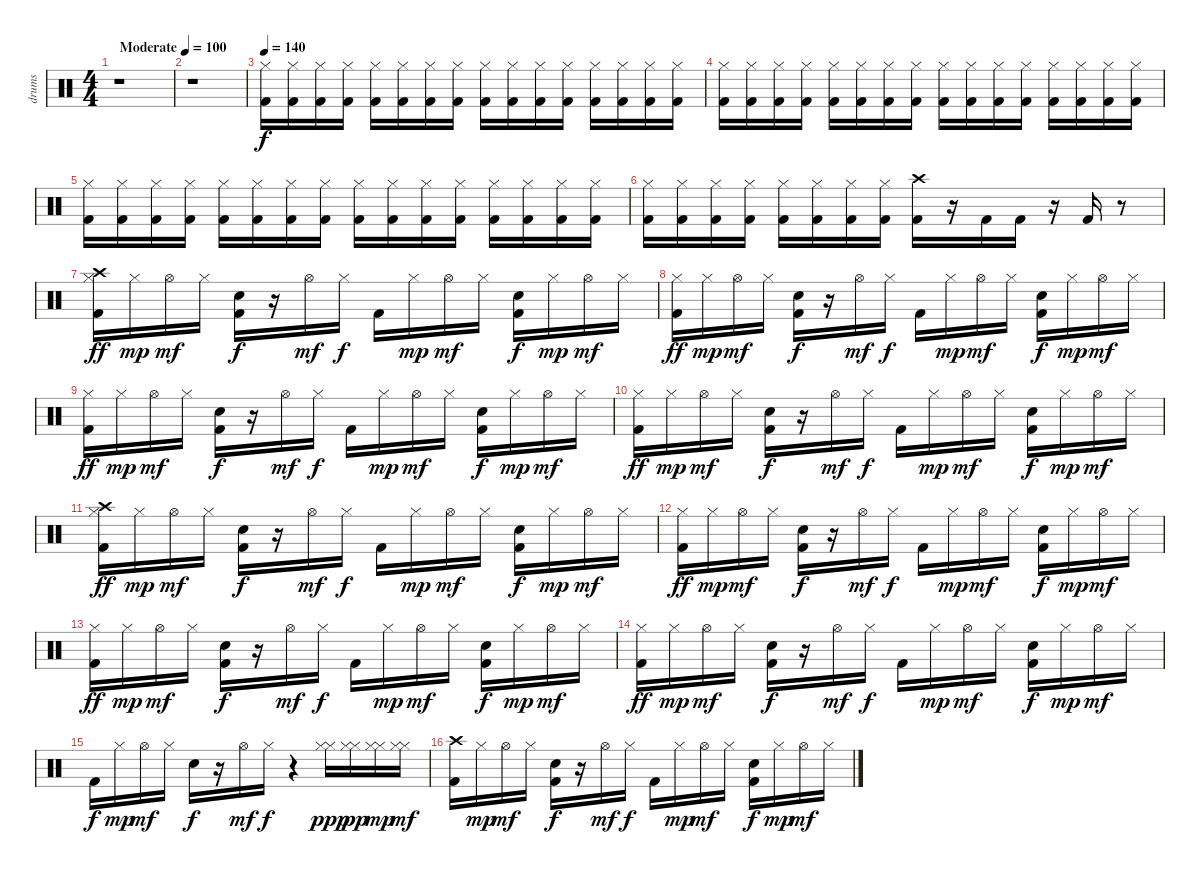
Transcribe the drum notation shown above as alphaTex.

\track ("drums" "drums") {instrument percussion}
\staff {score}
\articulation defaults
\ts (4 4)
\tempo (100 "Moderate")
\clef neutral
\ks c
r.1{dy f} |
r.1 |
\tempo 140
("Kick (hit) 2" "Hi-Hat (closed)").16 ("Kick (hit) 2" "Hi-Hat (closed)").16{volume 1} ("Kick (hit) 2" "Hi-Hat (closed)").16{volume 1} ("Kick (hit) 2" "Hi-Hat (closed)").16{volume 1} ("Kick (hit) 2" "Hi-Hat (closed)").16{volume 1} ("Kick (hit) 2" "Hi-Hat (closed)").16{volume 2} ("Kick (hit) 2" "Hi-Hat (closed)").16{volume 2} ("Kick (hit) 2" "Hi-Hat (closed)").16{volume 2} ("Kick (hit) 2" "Hi-Hat (closed)").16{volume 2} ("Kick (hit) 2" "Hi-Hat (closed)").16{volume 2} ("Kick (hit) 2" "Hi-Hat (closed)").16{volume 2} ("Kick (hit) 2" "Hi-Hat (closed)").16{volume 3} ("Kick (hit) 2" "Hi-Hat (closed)").16{volume 3} ("Kick (hit) 2" "Hi-Hat (closed)").16{volume 3} ("Kick (hit) 2" "Hi-Hat (closed)").16{volume 3} ("Kick (hit) 2" "Hi-Hat (closed)").16{volume 3} |
("Kick (hit) 2" "Hi-Hat (closed)").16{volume 4} ("Kick (hit) 2" "Hi-Hat (closed)").16{volume 4} ("Kick (hit) 2" "Hi-Hat (closed)").16{volume 4} ("Kick (hit) 2" "Hi-Hat (closed)").16{volume 4} ("Kick (hit) 2" "Hi-Hat (closed)").16{volume 4} ("Kick (hit) 2" "Hi-Hat (closed)").16{volume 4} ("Kick (hit) 2" "Hi-Hat (closed)").16{volume 5} ("Kick (hit) 2" "Hi-Hat (closed)").16{volume 5} ("Kick (hit) 2" "Hi-Hat (closed)").16{volume 5} ("Kick (hit) 2" "Hi-Hat (closed)").16{volume 5} ("Kick (hit) 2" "Hi-Hat (closed)").16{volume 5} ("Kick (hit) 2" "Hi-Hat (closed)").16{volume 6} ("Kick (hit) 2" "Hi-Hat (closed)").16{volume 6} ("Kick (hit) 2" "Hi-Hat (closed)").16{volume 6} ("Kick (hit) 2" "Hi-Hat (closed)").16{volume 6} ("Kick (hit) 2" "Hi-Hat (closed)").16{volume 6} |
("Kick (hit) 2" "Hi-Hat (closed)").16{volume 6} ("Kick (hit) 2" "Hi-Hat (closed)").16{volume 7} ("Kick (hit) 2" "Hi-Hat (closed)").16{volume 7} ("Kick (hit) 2" "Hi-Hat (closed)").16{volume 7} ("Kick (hit) 2" "Hi-Hat (closed)").16{volume 7} ("Kick (hit) 2" "Hi-Hat (closed)").16{volume 7} ("Kick (hit) 2" "Hi-Hat (closed)").16{volume 8} ("Kick (hit) 2" "Hi-Hat (closed)").16{volume 8} ("Kick (hit) 2" "Hi-Hat (closed)").16{volume 8} ("Kick (hit) 2" "Hi-Hat (closed)").16{volume 8} ("Kick (hit) 2" "Hi-Hat (closed)").16{volume 8} ("Kick (hit) 2" "Hi-Hat (closed)").16{volume 8} ("Kick (hit) 2" "Hi-Hat (closed)").16{volume 9} ("Kick (hit) 2" "Hi-Hat (closed)").16{volume 9} ("Kick (hit) 2" "Hi-Hat (closed)").16{volume 9} ("Kick (hit) 2" "Hi-Hat (closed)").16{volume 9} |
("Kick (hit) 2" "Hi-Hat (closed)").16{volume 9} ("Kick (hit) 2" "Hi-Hat (closed)").16{volume 10} ("Kick (hit) 2" "Hi-Hat (closed)").16{volume 10} ("Kick (hit) 2" "Hi-Hat (closed)").16{volume 10} ("Kick (hit) 2" "Hi-Hat (closed)").16{volume 10} ("Kick (hit) 2" "Hi-Hat (closed)").16{volume 10} ("Kick (hit) 2" "Hi-Hat (closed)").16{volume 10} ("Kick (hit) 2" "Hi-Hat (closed)").16{volume 10} ("Kick (hit) 2" "Crash high (hit)").16{volume 11} r.16 "Kick (hit) 2".16 "Kick (hit) 2".16 r.16 "Kick (hit) 2".16 r.8 |
("Kick (hit) 2" "Crash high (hit)" "Hi-Hat (closed)").16{dy ff} "Hi-Hat (closed)".16{dy mp} "Hi-Hat (open)".16{dy mf} "Hi-Hat (closed)".16 ("Kick (hit) 2" "Hand Clap (hit)").16{dy f} r.16 "Hi-Hat (open)".16{dy mf} "Hi-Hat (closed)".16{dy f} "Kick (hit) 2".16 "Hi-Hat (closed)".16{dy mp} "Hi-Hat (open)".16{dy mf} "Hi-Hat (closed)".16 ("Kick (hit) 2" "Hand Clap (hit)").16{dy f} "Hi-Hat (closed)".16{dy mp} "Hi-Hat (open)".16{dy mf} "Hi-Hat (closed)".16 |
("Kick (hit) 2" "Hi-Hat (closed)").16{dy ff} "Hi-Hat (closed)".16{dy mp} "Hi-Hat (open)".16{dy mf} "Hi-Hat (closed)".16 ("Kick (hit) 2" "Hand Clap (hit)").16{dy f} r.16 "Hi-Hat (open)".16{dy mf} "Hi-Hat (closed)".16{dy f} "Kick (hit) 2".16 "Hi-Hat (closed)".16{dy mp} "Hi-Hat (open)".16{dy mf} "Hi-Hat (closed)".16 ("Kick (hit) 2" "Hand Clap (hit)").16{dy f} "Hi-Hat (closed)".16{dy mp} "Hi-Hat (open)".16{dy mf} "Hi-Hat (closed)".16 |
("Kick (hit) 2" "Hi-Hat (closed)").16{dy ff} "Hi-Hat (closed)".16{dy mp} "Hi-Hat (open)".16{dy mf} "Hi-Hat (closed)".16 ("Kick (hit) 2" "Hand Clap (hit)").16{dy f} r.16 "Hi-Hat (open)".16{dy mf} "Hi-Hat (closed)".16{dy f} "Kick (hit) 2".16 "Hi-Hat (closed)".16{dy mp} "Hi-Hat (open)".16{dy mf} "Hi-Hat (closed)".16 ("Kick (hit) 2" "Hand Clap (hit)").16{dy f} "Hi-Hat (closed)".16{dy mp} "Hi-Hat (open)".16{dy mf} "Hi-Hat (closed)".16 |
("Kick (hit) 2" "Hi-Hat (closed)").16{dy ff} "Hi-Hat (closed)".16{dy mp} "Hi-Hat (open)".16{dy mf} "Hi-Hat (closed)".16 ("Kick (hit) 2" "Hand Clap (hit)").16{dy f} r.16 "Hi-Hat (open)".16{dy mf} "Hi-Hat (closed)".16{dy f} "Kick (hit) 2".16 "Hi-Hat (closed)".16{dy mp} "Hi-Hat (open)".16{dy mf} "Hi-Hat (closed)".16 ("Kick (hit) 2" "Hand Clap (hit)").16{dy f} "Hi-Hat (closed)".16{dy mp} "Hi-Hat (open)".16{dy mf} "Hi-Hat (closed)".16 |
("Kick (hit) 2" "Crash high (hit)" "Hi-Hat (closed)").16{dy ff} "Hi-Hat (closed)".16{dy mp} "Hi-Hat (open)".16{dy mf} "Hi-Hat (closed)".16 ("Kick (hit) 2" "Hand Clap (hit)").16{dy f} r.16 "Hi-Hat (open)".16{dy mf} "Hi-Hat (closed)".16{dy f} "Kick (hit) 2".16 "Hi-Hat (closed)".16{dy mp} "Hi-Hat (open)".16{dy mf} "Hi-Hat (closed)".16 ("Kick (hit) 2" "Hand Clap (hit)").16{dy f} "Hi-Hat (closed)".16{dy mp} "Hi-Hat (open)".16{dy mf} "Hi-Hat (closed)".16 |
("Kick (hit) 2" "Hi-Hat (closed)").16{dy ff} "Hi-Hat (closed)".16{dy mp} "Hi-Hat (open)".16{dy mf} "Hi-Hat (closed)".16 ("Kick (hit) 2" "Hand Clap (hit)").16{dy f} r.16 "Hi-Hat (open)".16{dy mf} "Hi-Hat (closed)".16{dy f} "Kick (hit) 2".16 "Hi-Hat (closed)".16{dy mp} "Hi-Hat (open)".16{dy mf} "Hi-Hat (closed)".16 ("Kick (hit) 2" "Hand Clap (hit)").16{dy f} "Hi-Hat (closed)".16{dy mp} "Hi-Hat (open)".16{dy mf} "Hi-Hat (closed)".16 |
("Kick (hit) 2" "Hi-Hat (closed)").16{dy ff} "Hi-Hat (closed)".16{dy mp} "Hi-Hat (open)".16{dy mf} "Hi-Hat (closed)".16 ("Kick (hit) 2" "Hand Clap (hit)").16{dy f} r.16 "Hi-Hat (open)".16{dy mf} "Hi-Hat (closed)".16{dy f} "Kick (hit) 2".16 "Hi-Hat (closed)".16{dy mp} "Hi-Hat (open)".16{dy mf} "Hi-Hat (closed)".16 ("Kick (hit) 2" "Hand Clap (hit)").16{dy f} "Hi-Hat (closed)".16{dy mp} "Hi-Hat (open)".16{dy mf} "Hi-Hat (closed)".16 |
("Kick (hit) 2" "Hi-Hat (closed)").16{dy ff} "Hi-Hat (closed)".16{dy mp} "Hi-Hat (open)".16{dy mf} "Hi-Hat (closed)".16 ("Kick (hit) 2" "Hand Clap (hit)").16{dy f} r.16 "Hi-Hat (open)".16{dy mf} "Hi-Hat (closed)".16{dy f} "Kick (hit) 2".16 "Hi-Hat (closed)".16{dy mp} "Hi-Hat (open)".16{dy mf} "Hi-Hat (closed)".16 ("Kick (hit) 2" "Hand Clap (hit)").16{dy f} "Hi-Hat (closed)".16{dy mp} "Hi-Hat (open)".16{dy mf} "Hi-Hat (closed)".16 |
"Kick (hit) 2".16{dy f} "Hi-Hat (closed)".16{dy mp} "Hi-Hat (open)".16{dy mf} "Hi-Hat (closed)".16 "Hand Clap (hit)".16{dy f} r.16 "Hi-Hat (open)".16{dy mf} "Hi-Hat (closed)".16{dy f} r.4 ("Hi-Hat (closed)" "Hi-Hat (closed)").16{dy ppp} ("Hi-Hat (closed)" "Hi-Hat (closed)").16{dy pp} ("Hi-Hat (closed)" "Hi-Hat (closed)").16{dy mp} ("Hi-Hat (closed)" "Hi-Hat (closed)").16{dy mf} |
("Kick (hit) 2" "Crash high (hit)").16 "Hi-Hat (closed)".16{dy mp} "Hi-Hat (open)".16{dy mf} "Hi-Hat (closed)".16 ("Kick (hit) 2" "Hand Clap (hit)").16{dy f} r.16 "Hi-Hat (open)".16{dy mf} "Hi-Hat (closed)".16{dy f} "Kick (hit) 2".16 "Hi-Hat (closed)".16{dy mp} "Hi-Hat (open)".16{dy mf} "Hi-Hat (closed)".16 ("Kick (hit) 2" "Hand Clap (hit)").16{dy f} "Hi-Hat (closed)".16{dy mp} "Hi-Hat (open)".16{dy mf} "Hi-Hat (closed)".16
